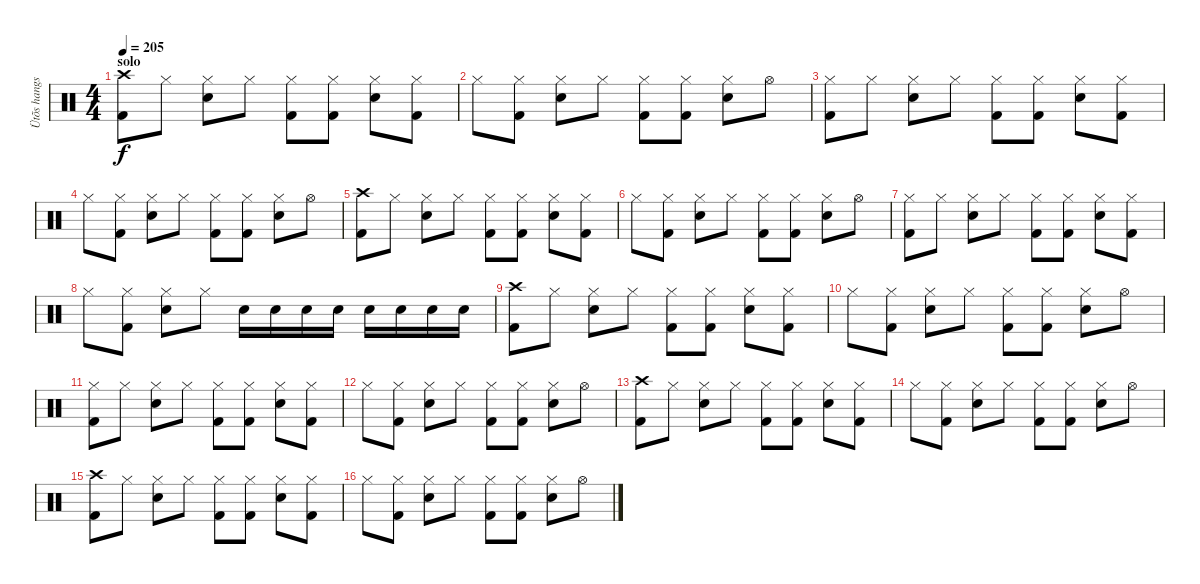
\track ("Ütõs hangszer" "Ütõs hangs") {instrument percussion}
\staff {score}
\articulation defaults
\ts (4 4)
\section ("" "solo")
\tempo 205
\clef neutral
\ks c
("Crash high (hit)" "Kick (hit) 2").8{dy f} "Hi-Hat (closed)".8 ("Hi-Hat (closed)" "Snare (hit) 2").8 "Hi-Hat (closed)".8 ("Hi-Hat (closed)" "Kick (hit) 2").8 ("Hi-Hat (closed)" "Kick (hit) 2").8 ("Hi-Hat (closed)" "Snare (hit) 2").8 ("Hi-Hat (closed)" "Kick (hit) 2").8 |
"Hi-Hat (closed)".8 ("Hi-Hat (closed)" "Kick (hit) 2").8 ("Hi-Hat (closed)" "Snare (hit) 2").8 "Hi-Hat (closed)".8 ("Hi-Hat (closed)" "Kick (hit) 2").8 ("Hi-Hat (closed)" "Kick (hit) 2").8 ("Hi-Hat (closed)" "Snare (hit) 2").8 "Hi-Hat (open)".8 |
("Hi-Hat (closed)" "Kick (hit) 2").8 "Hi-Hat (closed)".8 ("Hi-Hat (closed)" "Snare (hit) 2").8 "Hi-Hat (closed)".8 ("Hi-Hat (closed)" "Kick (hit) 2").8 ("Hi-Hat (closed)" "Kick (hit) 2").8 ("Hi-Hat (closed)" "Snare (hit) 2").8 ("Hi-Hat (closed)" "Kick (hit) 2").8 |
"Hi-Hat (closed)".8 ("Hi-Hat (closed)" "Kick (hit) 2").8 ("Hi-Hat (closed)" "Snare (hit) 2").8 "Hi-Hat (closed)".8 ("Hi-Hat (closed)" "Kick (hit) 2").8 ("Hi-Hat (closed)" "Kick (hit) 2").8 ("Hi-Hat (closed)" "Snare (hit) 2").8 "Hi-Hat (open)".8 |
("Crash high (hit)" "Kick (hit) 2").8 "Hi-Hat (closed)".8 ("Hi-Hat (closed)" "Snare (hit) 2").8 "Hi-Hat (closed)".8 ("Hi-Hat (closed)" "Kick (hit) 2").8 ("Hi-Hat (closed)" "Kick (hit) 2").8 ("Hi-Hat (closed)" "Snare (hit) 2").8 ("Hi-Hat (closed)" "Kick (hit) 2").8 |
"Hi-Hat (closed)".8 ("Hi-Hat (closed)" "Kick (hit) 2").8 ("Hi-Hat (closed)" "Snare (hit) 2").8 "Hi-Hat (closed)".8 ("Hi-Hat (closed)" "Kick (hit) 2").8 ("Hi-Hat (closed)" "Kick (hit) 2").8 ("Hi-Hat (closed)" "Snare (hit) 2").8 "Hi-Hat (open)".8 |
("Hi-Hat (closed)" "Kick (hit) 2").8 "Hi-Hat (closed)".8 ("Hi-Hat (closed)" "Snare (hit) 2").8 "Hi-Hat (closed)".8 ("Hi-Hat (closed)" "Kick (hit) 2").8 ("Hi-Hat (closed)" "Kick (hit) 2").8 ("Hi-Hat (closed)" "Snare (hit) 2").8 ("Hi-Hat (closed)" "Kick (hit) 2").8 |
"Hi-Hat (closed)".8 ("Hi-Hat (closed)" "Kick (hit) 2").8 ("Hi-Hat (closed)" "Snare (hit) 2").8 "Hi-Hat (closed)".8 "Snare (hit) 2".16 "Snare (hit) 2".16 "Snare (hit) 2".16 "Snare (hit) 2".16 "Snare (hit) 2".16 "Snare (hit) 2".16 "Snare (hit) 2".16 "Snare (hit) 2".16 |
("Crash high (hit)" "Kick (hit) 2").8 "Hi-Hat (closed)".8 ("Hi-Hat (closed)" "Snare (hit) 2").8 "Hi-Hat (closed)".8 ("Hi-Hat (closed)" "Kick (hit) 2").8 ("Hi-Hat (closed)" "Kick (hit) 2").8 ("Hi-Hat (closed)" "Snare (hit) 2").8 ("Hi-Hat (closed)" "Kick (hit) 2").8 |
"Hi-Hat (closed)".8 ("Hi-Hat (closed)" "Kick (hit) 2").8 ("Hi-Hat (closed)" "Snare (hit) 2").8 "Hi-Hat (closed)".8 ("Hi-Hat (closed)" "Kick (hit) 2").8 ("Hi-Hat (closed)" "Kick (hit) 2").8 ("Hi-Hat (closed)" "Snare (hit) 2").8 "Hi-Hat (open)".8 |
("Hi-Hat (closed)" "Kick (hit) 2").8 "Hi-Hat (closed)".8 ("Hi-Hat (closed)" "Snare (hit) 2").8 "Hi-Hat (closed)".8 ("Hi-Hat (closed)" "Kick (hit) 2").8 ("Hi-Hat (closed)" "Kick (hit) 2").8 ("Hi-Hat (closed)" "Snare (hit) 2").8 ("Hi-Hat (closed)" "Kick (hit) 2").8 |
"Hi-Hat (closed)".8 ("Hi-Hat (closed)" "Kick (hit) 2").8 ("Hi-Hat (closed)" "Snare (hit) 2").8 "Hi-Hat (closed)".8 ("Hi-Hat (closed)" "Kick (hit) 2").8 ("Hi-Hat (closed)" "Kick (hit) 2").8 ("Hi-Hat (closed)" "Snare (hit) 2").8 "Hi-Hat (open)".8 |
("Crash high (hit)" "Kick (hit) 2").8 "Hi-Hat (closed)".8 ("Hi-Hat (closed)" "Snare (hit) 2").8 "Hi-Hat (closed)".8 ("Hi-Hat (closed)" "Kick (hit) 2").8 ("Hi-Hat (closed)" "Kick (hit) 2").8 ("Hi-Hat (closed)" "Snare (hit) 2").8 ("Hi-Hat (closed)" "Kick (hit) 2").8 |
"Hi-Hat (closed)".8 ("Hi-Hat (closed)" "Kick (hit) 2").8 ("Hi-Hat (closed)" "Snare (hit) 2").8 "Hi-Hat (closed)".8 ("Hi-Hat (closed)" "Kick (hit) 2").8 ("Hi-Hat (closed)" "Kick (hit) 2").8 ("Hi-Hat (closed)" "Snare (hit) 2").8 "Hi-Hat (open)".8 |
("Crash high (hit)" "Kick (hit) 2").8 "Hi-Hat (closed)".8 ("Hi-Hat (closed)" "Snare (hit) 2").8 "Hi-Hat (closed)".8 ("Hi-Hat (closed)" "Kick (hit) 2").8 ("Hi-Hat (closed)" "Kick (hit) 2").8 ("Hi-Hat (closed)" "Snare (hit) 2").8 ("Hi-Hat (closed)" "Kick (hit) 2").8 |
"Hi-Hat (closed)".8 ("Hi-Hat (closed)" "Kick (hit) 2").8 ("Hi-Hat (closed)" "Snare (hit) 2").8 "Hi-Hat (closed)".8 ("Hi-Hat (closed)" "Kick (hit) 2").8 ("Hi-Hat (closed)" "Kick (hit) 2").8 ("Hi-Hat (closed)" "Snare (hit) 2").8 "Hi-Hat (open)".8
